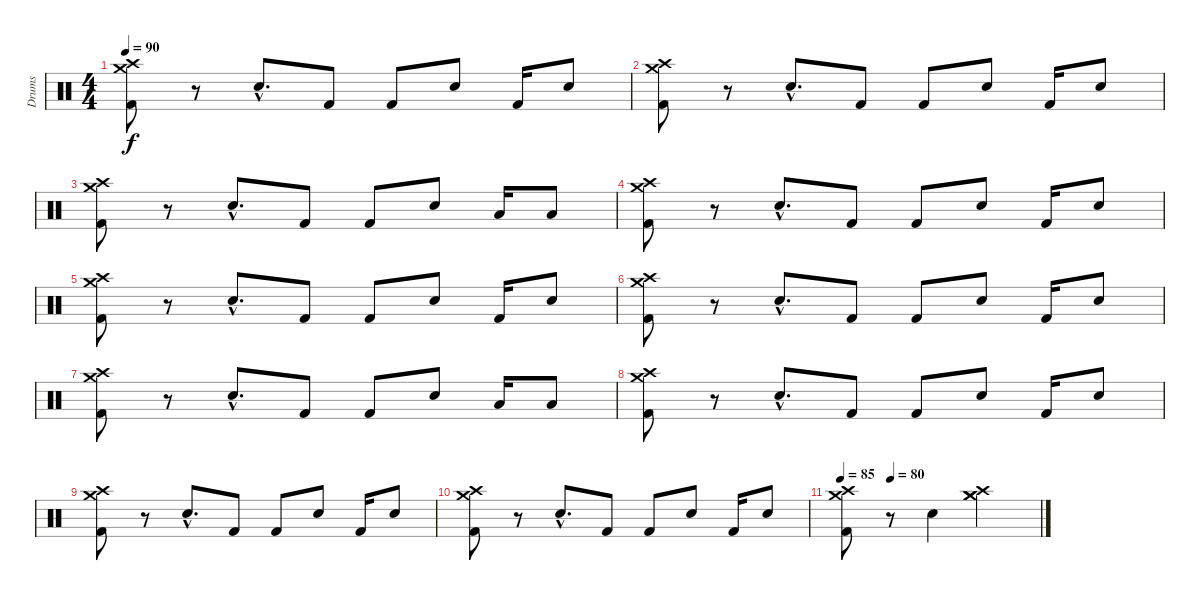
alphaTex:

\track ("Drums" "Drums") {instrument percussion}
\staff {score}
\articulation defaults
\ts (4 4)
\tempo 90
\clef neutral
\ks c
("Crash high (hit)" "Crash medium (hit)" "Kick (hit) 2").8{dy f} r.8 "Snare (hit) 2"{hac}.8{d} "Kick (hit) 2".8 "Kick (hit) 2".8 "Snare (hit) 2".8 "Kick (hit) 2".16 "Snare (hit) 2".8 |
("Crash high (hit)" "Crash medium (hit)" "Kick (hit) 2").8 r.8 "Snare (hit) 2"{hac}.8{d} "Kick (hit) 2".8 "Kick (hit) 2".8 "Snare (hit) 2".8 "Kick (hit) 2".16 "Snare (hit) 2".8 |
("Crash high (hit)" "Crash medium (hit)" "Kick (hit) 2").8 r.8 "Snare (hit) 2"{hac}.8{d} "Kick (hit) 2".8 "Kick (hit) 2".8 "Snare (hit) 2".8 "Low Tom (hit)".16 "Low Tom (hit)".8 |
("Crash high (hit)" "Crash medium (hit)" "Kick (hit) 2").8 r.8 "Snare (hit) 2"{hac}.8{d} "Kick (hit) 2".8 "Kick (hit) 2".8 "Snare (hit) 2".8 "Kick (hit) 2".16 "Snare (hit) 2".8 |
("Crash high (hit)" "Crash medium (hit)" "Kick (hit) 2").8 r.8 "Snare (hit) 2"{hac}.8{d} "Kick (hit) 2".8 "Kick (hit) 2".8 "Snare (hit) 2".8 "Kick (hit) 2".16 "Snare (hit) 2".8 |
("Crash high (hit)" "Crash medium (hit)" "Kick (hit) 2").8 r.8 "Snare (hit) 2"{hac}.8{d} "Kick (hit) 2".8 "Kick (hit) 2".8 "Snare (hit) 2".8 "Kick (hit) 2".16 "Snare (hit) 2".8 |
("Crash high (hit)" "Crash medium (hit)" "Kick (hit) 2").8 r.8 "Snare (hit) 2"{hac}.8{d} "Kick (hit) 2".8 "Kick (hit) 2".8 "Snare (hit) 2".8 "Low Tom (hit)".16 "Low Tom (hit)".8 |
("Crash high (hit)" "Crash medium (hit)" "Kick (hit) 2").8 r.8 "Snare (hit) 2"{hac}.8{d} "Kick (hit) 2".8 "Kick (hit) 2".8 "Snare (hit) 2".8 "Kick (hit) 2".16 "Snare (hit) 2".8 |
("Crash high (hit)" "Crash medium (hit)" "Kick (hit) 2").8 r.8 "Snare (hit) 2"{hac}.8{d} "Kick (hit) 2".8 "Kick (hit) 2".8 "Snare (hit) 2".8 "Kick (hit) 2".16 "Snare (hit) 2".8 |
("Crash high (hit)" "Crash medium (hit)" "Kick (hit) 2").8 r.8 "Snare (hit) 2"{hac}.8{d} "Kick (hit) 2".8 "Kick (hit) 2".8 "Snare (hit) 2".8 "Kick (hit) 2".16 "Snare (hit) 2".8 |
\tempo 85
\tempo (80 0.25)
("Crash high (hit)" "Crash medium (hit)" "Kick (hit) 2").8 r.8 "Snare (hit) 2".4 ("Crash high (hit)" "Crash medium (hit)" "Crash medium (hit)").2
